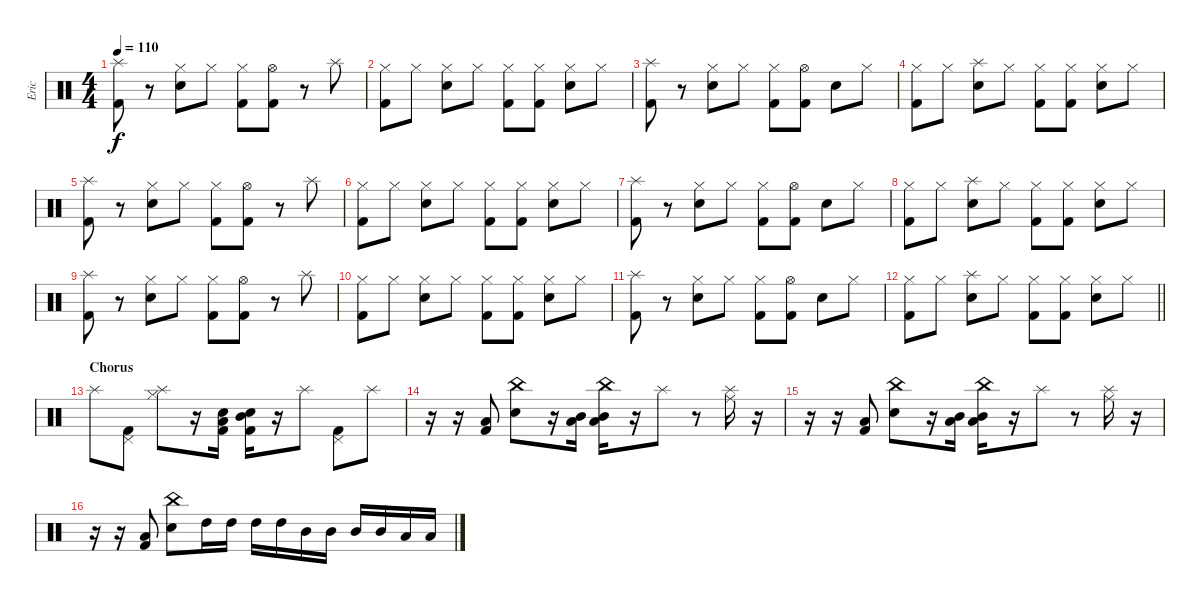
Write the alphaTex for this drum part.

\track ("Eric" "Eric") {instrument percussion}
\staff {score}
\articulation defaults
\ts (4 4)
\tempo 110
\clef neutral
\ks c
("Splash (hit)" "Kick (hit) 2").8{dy f} r.8 ("Hi-Hat (closed)" "Snare (hit) 2").8 "Hi-Hat (closed)".8 ("Hi-Hat (closed)" "Kick (hit) 2").8 ("Hi-Hat (open)" "Kick (hit) 2").8 r.8 "Splash (hit)".8 |
("Hi-Hat (closed)" "Kick (hit) 2").8 "Hi-Hat (closed)".8 ("Hi-Hat (closed)" "Snare (hit) 2").8 "Hi-Hat (closed)".8 ("Hi-Hat (closed)" "Kick (hit) 2").8 ("Hi-Hat (closed)" "Kick (hit) 2").8 ("Hi-Hat (closed)" "Snare (hit) 2").8 "Hi-Hat (closed)".8 |
("Splash (hit)" "Kick (hit) 2").8 r.8 ("Hi-Hat (closed)" "Snare (hit) 2").8 "Hi-Hat (closed)".8 ("Hi-Hat (closed)" "Kick (hit) 2").8 ("Hi-Hat (open)" "Kick (hit) 2").8 "Snare (hit) 2".8 "Hi-Hat (closed)".8 |
("Hi-Hat (closed)" "Kick (hit) 2").8 "Hi-Hat (closed)".8 ("Splash (hit)" "Snare (hit) 2").8 "Hi-Hat (closed)".8 ("Hi-Hat (closed)" "Kick (hit) 2").8 ("Hi-Hat (closed)" "Kick (hit) 2").8 ("Hi-Hat (closed)" "Snare (hit) 2").8 "Hi-Hat (closed)".8 |
("Splash (hit)" "Kick (hit) 2").8 r.8 ("Hi-Hat (closed)" "Snare (hit) 2").8 "Hi-Hat (closed)".8 ("Hi-Hat (closed)" "Kick (hit) 2").8 ("Hi-Hat (open)" "Kick (hit) 2").8 r.8 "Splash (hit)".8 |
("Hi-Hat (closed)" "Kick (hit) 2").8 "Hi-Hat (closed)".8 ("Hi-Hat (closed)" "Snare (hit) 2").8 "Hi-Hat (closed)".8 ("Hi-Hat (closed)" "Kick (hit) 2").8 ("Hi-Hat (closed)" "Kick (hit) 2").8 ("Hi-Hat (closed)" "Snare (hit) 2").8 "Hi-Hat (closed)".8 |
("Splash (hit)" "Kick (hit) 2").8 r.8 ("Hi-Hat (closed)" "Snare (hit) 2").8 "Hi-Hat (closed)".8 ("Hi-Hat (closed)" "Kick (hit) 2").8 ("Hi-Hat (open)" "Kick (hit) 2").8 "Snare (hit) 2".8 "Hi-Hat (closed)".8 |
("Hi-Hat (closed)" "Kick (hit) 2").8 "Hi-Hat (closed)".8 ("Splash (hit)" "Snare (hit) 2").8 "Hi-Hat (closed)".8 ("Hi-Hat (closed)" "Kick (hit) 2").8 ("Hi-Hat (closed)" "Kick (hit) 2").8 ("Hi-Hat (closed)" "Snare (hit) 2").8 "Hi-Hat (closed)".8 |
("Splash (hit)" "Kick (hit) 2").8 r.8 ("Hi-Hat (closed)" "Snare (hit) 2").8 "Hi-Hat (closed)".8 ("Hi-Hat (closed)" "Kick (hit) 2").8 ("Hi-Hat (open)" "Kick (hit) 2").8 r.8 "Splash (hit)".8 |
("Hi-Hat (closed)" "Kick (hit) 2").8 "Hi-Hat (closed)".8 ("Hi-Hat (closed)" "Snare (hit) 2").8 "Hi-Hat (closed)".8 ("Hi-Hat (closed)" "Kick (hit) 2").8 ("Hi-Hat (closed)" "Kick (hit) 2").8 ("Hi-Hat (closed)" "Snare (hit) 2").8 "Hi-Hat (closed)".8 |
("Splash (hit)" "Kick (hit) 2").8 r.8 ("Hi-Hat (closed)" "Snare (hit) 2").8 "Hi-Hat (closed)".8 ("Hi-Hat (closed)" "Kick (hit) 2").8 ("Hi-Hat (open)" "Kick (hit) 2").8 "Snare (hit) 2".8 "Hi-Hat (closed)".8 |
\barLineRight lightlight
("Hi-Hat (closed)" "Kick (hit) 2").8 "Hi-Hat (closed)".8 ("Splash (hit)" "Snare (hit) 2").8 "Hi-Hat (closed)".8 ("Hi-Hat (closed)" "Kick (hit) 2").8 ("Hi-Hat (closed)" "Kick (hit) 2").8 ("Hi-Hat (closed)" "Snare (hit) 2").8 "Hi-Hat (closed)".8 |
\section ("" "Chorus")
"Splash (hit)".8 ("Pedal Hi-Hat (hit)" "Kick (hit) 2").8 ("Hi-Hat (closed)" "Splash (hit)").8 r.16 ("Low Floor Tom (hit)" "Snare (hit) 2" "Kick (hit) 2").16 ("Mid Tom (hit)" "Snare (hit) 2" "Kick (hit) 2").16 r.16 "Splash (hit)".8 ("Pedal Hi-Hat (hit)" "Kick (hit) 2").8 "Splash (hit)".8 |
r.16 r.16 ("Low Floor Tom (hit)" "Kick (hit) 2").8 ("China (hit)" "Snare (hit) 2").8 r.16 ("Mid Tom (hit)" "Low Floor Tom (hit)").16 ("China (hit)" "Low Floor Tom (hit)" "Mid Tom (hit)").16 r.16 "Splash (hit)".8 r.8 ("Ride (middle)" "Splash (hit)").16 r.16 |
r.16 r.16 ("Low Floor Tom (hit)" "Kick (hit) 2").8 ("China (hit)" "Snare (hit) 2").8 r.16 ("Mid Tom (hit)" "Low Floor Tom (hit)").16 ("China (hit)" "Low Floor Tom (hit)" "Mid Tom (hit)").16 r.16 "Splash (hit)".8 r.8 ("Ride (middle)" "Splash (hit)").16 r.16 |
r.16 r.16 ("Low Floor Tom (hit)" "Kick (hit) 2").8 ("China (hit)" "Snare (hit) 2").8 "High Tom (hit)".16 "High Tom (hit)".16 "High Tom (hit)".16 "High Tom (hit)".16 "Mid Tom (hit)".16 "Mid Tom (hit)".16 "Mid Tom (hit)".16 "Mid Tom (hit)".16 "Low Floor Tom (hit)".16 "Low Floor Tom (hit)".16
